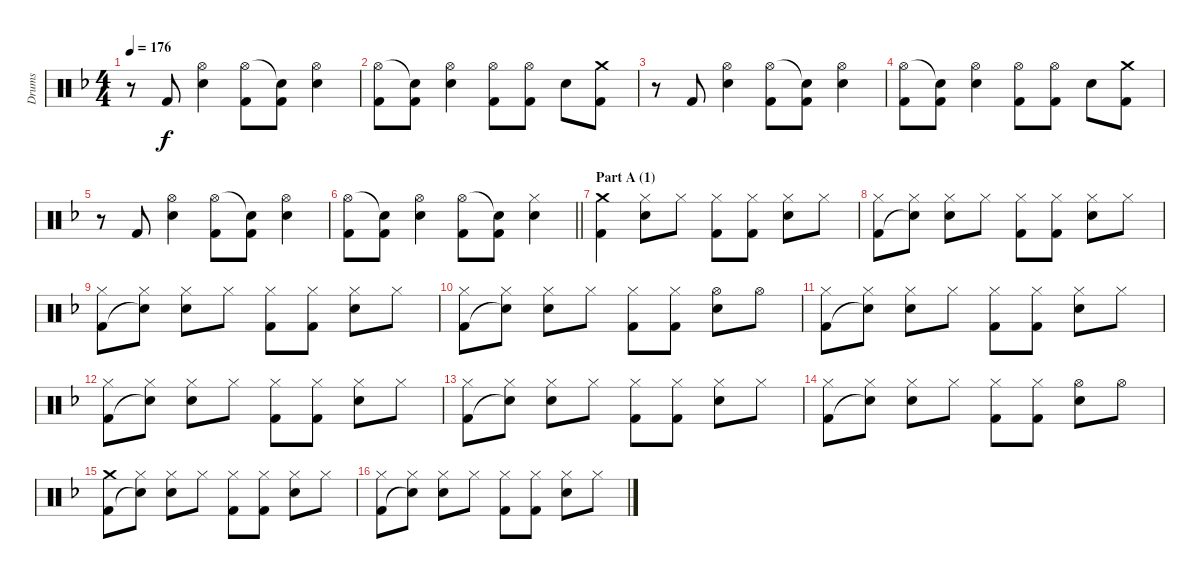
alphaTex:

\track ("Drums" "Drums") {instrument percussion}
\staff {score}
\articulation defaults
\ts (4 4)
\tempo 176
\clef neutral
\ks f
r.8{dy f} "Kick (hit) 2".8 ("Hi-Hat (open)" "Electric Snare (hit)").4 ("Hi-Hat (open)" "Kick (hit) 2").8 ("Snare (hit)"{t} "Kick (hit) 2").8 ("Hi-Hat (open)" "Electric Snare (hit)").4 |
("Hi-Hat (open)" "Kick (hit) 2").8 ("Snare (hit)"{t} "Kick (hit) 2").8 ("Hi-Hat (open)" "Electric Snare (hit)").4 ("Hi-Hat (open)" "Kick (hit) 2").8 ("Hi-Hat (open)" "Kick (hit) 2").8 "Electric Snare (hit)".8 ("Crash medium (hit)" "Kick (hit) 2").8 |
r.8 "Kick (hit) 2".8 ("Hi-Hat (open)" "Electric Snare (hit)").4 ("Hi-Hat (open)" "Kick (hit) 2").8 ("Snare (hit)"{t} "Kick (hit) 2").8 ("Hi-Hat (open)" "Electric Snare (hit)").4 |
("Hi-Hat (open)" "Kick (hit) 2").8 ("Snare (hit)"{t} "Kick (hit) 2").8 ("Hi-Hat (open)" "Electric Snare (hit)").4 ("Hi-Hat (open)" "Kick (hit) 2").8 ("Hi-Hat (open)" "Kick (hit) 2").8 "Electric Snare (hit)".8 ("Crash medium (hit)" "Kick (hit) 2").8 |
r.8 "Kick (hit) 2".8 ("Hi-Hat (open)" "Electric Snare (hit)").4 ("Hi-Hat (open)" "Kick (hit) 2").8 ("Snare (hit)"{t} "Kick (hit) 2").8 ("Hi-Hat (open)" "Electric Snare (hit)").4 |
\barLineRight lightlight
("Hi-Hat (open)" "Kick (hit) 2").8 ("Snare (hit)"{t} "Kick (hit) 2").8 ("Hi-Hat (open)" "Electric Snare (hit)").4 ("Hi-Hat (open)" "Kick (hit) 2").8 ("Snare (hit)"{t} "Kick (hit) 2").8 ("Hi-Hat (closed)" "Electric Snare (hit)").4 |
\section ("" "Part A (1)")
("Crash medium (hit)" "Kick (hit) 2").4 ("Hi-Hat (closed)" "Electric Snare (hit)").8 "Hi-Hat (closed)".8 ("Hi-Hat (closed)" "Kick (hit) 2").8 ("Hi-Hat (closed)" "Kick (hit) 2").8 ("Hi-Hat (closed)" "Electric Snare (hit)").8 "Hi-Hat (closed)".8 |
("Hi-Hat (closed)" "Kick (hit) 2").8 ("Hi-Hat (closed)" "Snare (hit)"{t}).8 ("Hi-Hat (closed)" "Electric Snare (hit)").8 "Hi-Hat (closed)".8 ("Hi-Hat (closed)" "Kick (hit) 2").8 ("Hi-Hat (closed)" "Kick (hit) 2").8 ("Hi-Hat (closed)" "Electric Snare (hit)").8 "Hi-Hat (closed)".8 |
("Hi-Hat (closed)" "Kick (hit) 2").8 ("Hi-Hat (closed)" "Snare (hit)"{t}).8 ("Hi-Hat (closed)" "Electric Snare (hit)").8 "Hi-Hat (closed)".8 ("Hi-Hat (closed)" "Kick (hit) 2").8 ("Hi-Hat (closed)" "Kick (hit) 2").8 ("Hi-Hat (closed)" "Electric Snare (hit)").8 "Hi-Hat (closed)".8 |
("Hi-Hat (closed)" "Kick (hit) 2").8 ("Hi-Hat (closed)" "Snare (hit)"{t}).8 ("Hi-Hat (closed)" "Electric Snare (hit)").8 "Hi-Hat (closed)".8 ("Hi-Hat (closed)" "Kick (hit) 2").8 ("Hi-Hat (closed)" "Kick (hit) 2").8 ("Hi-Hat (open)" "Electric Snare (hit)").8 "Hi-Hat (open)".8 |
("Hi-Hat (closed)" "Kick (hit) 2").8 ("Hi-Hat (closed)" "Snare (hit)"{t}).8 ("Hi-Hat (closed)" "Electric Snare (hit)").8 "Hi-Hat (closed)".8 ("Hi-Hat (closed)" "Kick (hit) 2").8 ("Hi-Hat (closed)" "Kick (hit) 2").8 ("Hi-Hat (closed)" "Electric Snare (hit)").8 "Hi-Hat (closed)".8 |
("Hi-Hat (closed)" "Kick (hit) 2").8 ("Hi-Hat (closed)" "Snare (hit)"{t}).8 ("Hi-Hat (closed)" "Electric Snare (hit)").8 "Hi-Hat (closed)".8 ("Hi-Hat (closed)" "Kick (hit) 2").8 ("Hi-Hat (closed)" "Kick (hit) 2").8 ("Hi-Hat (closed)" "Electric Snare (hit)").8 "Hi-Hat (closed)".8 |
("Hi-Hat (closed)" "Kick (hit) 2").8 ("Hi-Hat (closed)" "Snare (hit)"{t}).8 ("Hi-Hat (closed)" "Electric Snare (hit)").8 "Hi-Hat (closed)".8 ("Hi-Hat (closed)" "Kick (hit) 2").8 ("Hi-Hat (closed)" "Kick (hit) 2").8 ("Hi-Hat (closed)" "Electric Snare (hit)").8 "Hi-Hat (closed)".8 |
("Hi-Hat (closed)" "Kick (hit) 2").8 ("Hi-Hat (closed)" "Snare (hit)"{t}).8 ("Hi-Hat (closed)" "Electric Snare (hit)").8 "Hi-Hat (closed)".8 ("Hi-Hat (closed)" "Kick (hit) 2").8 ("Hi-Hat (closed)" "Kick (hit) 2").8 ("Hi-Hat (open)" "Electric Snare (hit)").8 "Hi-Hat (open)".8 |
("Crash medium (hit)" "Kick (hit) 2").8 ("Hi-Hat (closed)" "Snare (hit)"{t}).8 ("Hi-Hat (closed)" "Electric Snare (hit)").8 "Hi-Hat (closed)".8 ("Hi-Hat (closed)" "Kick (hit) 2").8 ("Hi-Hat (closed)" "Kick (hit) 2").8 ("Hi-Hat (closed)" "Electric Snare (hit)").8 "Hi-Hat (closed)".8 |
("Hi-Hat (closed)" "Kick (hit) 2").8 ("Hi-Hat (closed)" "Snare (hit)"{t}).8 ("Hi-Hat (closed)" "Electric Snare (hit)").8 "Hi-Hat (closed)".8 ("Hi-Hat (closed)" "Kick (hit) 2").8 ("Hi-Hat (closed)" "Kick (hit) 2").8 ("Hi-Hat (closed)" "Electric Snare (hit)").8 "Hi-Hat (closed)".8
